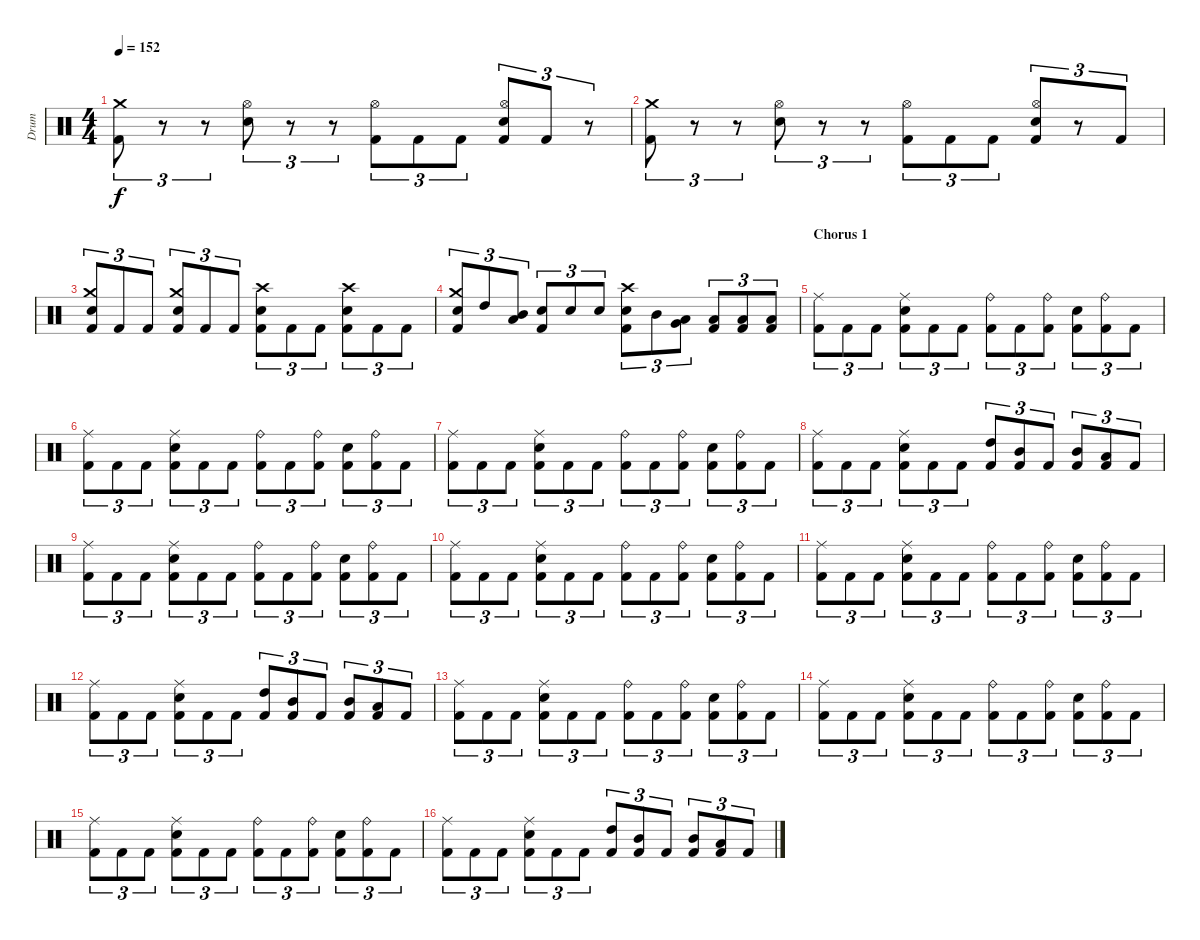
\track ("Drum" "Drum") {instrument percussion}
\staff {score}
\articulation defaults
\ts (4 4)
\tempo 152
\clef neutral
\ks c
("Kick (hit) 2" "Crash medium (hit)").8{tu (3 2) dy f} r.8{tu (3 2)} r.8{tu (3 2)} ("Hi-Hat (open)" "Electric Snare (hit)").8{tu (3 2)} r.8{tu (3 2)} r.8{tu (3 2)} ("Hi-Hat (open)" "Kick (hit) 2").8{tu (3 2)} "Kick (hit) 2".8{tu (3 2)} "Kick (hit) 2".8{tu (3 2)} ("Kick (hit) 2" "Hi-Hat (open)" "Electric Snare (hit)").8{tu (3 2)} "Kick (hit) 2".8{tu (3 2)} r.8{tu (3 2)} |
("Crash medium (hit)" "Kick (hit) 2").8{tu (3 2)} r.8{tu (3 2)} r.8{tu (3 2)} ("Hi-Hat (open)" "Electric Snare (hit)").8{tu (3 2)} r.8{tu (3 2)} r.8{tu (3 2)} ("Kick (hit) 2" "Hi-Hat (open)").8{tu (3 2)} "Kick (hit) 2".8{tu (3 2)} "Kick (hit) 2".8{tu (3 2)} ("Electric Snare (hit)" "Kick (hit) 2" "Hi-Hat (open)").8{tu (3 2)} r.8{tu (3 2)} "Kick (hit) 2".8{tu (3 2)} |
("Kick (hit) 2" "Crash medium (hit)" "Electric Snare (hit)").8{tu (3 2)} "Kick (hit) 2".8{tu (3 2)} "Kick (hit) 2".8{tu (3 2)} ("Electric Snare (hit)" "Crash medium (hit)" "Kick (hit) 2").8{tu (3 2)} "Kick (hit) 2".8{tu (3 2)} "Kick (hit) 2".8{tu (3 2)} ("Kick (hit) 2" "Crash high (hit)" "Electric Snare (hit)").8{tu (3 2)} "Kick (hit) 2".8{tu (3 2)} "Kick (hit) 2".8{tu (3 2)} ("Crash high (hit)" "Electric Snare (hit)" "Kick (hit) 2").8{tu (3 2)} "Kick (hit) 2".8{tu (3 2)} "Kick (hit) 2".8{tu (3 2)} |
("Crash medium (hit)" "Electric Snare (hit)" "Kick (hit) 2").8{tu (3 2)} "High Tom (hit)".8{tu (3 2)} ("Mid Tom (hit)" "Low Tom (hit)").8{tu (3 2)} ("Kick (hit) 2" "Electric Snare (hit)").8{tu (3 2)} "Electric Snare (hit)".8{tu (3 2)} "Electric Snare (hit)".8{tu (3 2)} ("Crash high (hit)" "Electric Snare (hit)" "Kick (hit) 2").8{tu (3 2)} "Mid Tom (hit)".8{tu (3 2)} ("Low Tom (hit)" "Very Low Tom (hit)").8{tu (3 2)} ("Low Tom (hit)" "Kick (hit) 2").8{tu (3 2)} ("Low Tom (hit)" "Kick (hit) 2").8{tu (3 2)} ("Kick (hit) 2" "Low Tom (hit)").8{tu (3 2)} |
\section ("" "Chorus 1")
("Kick (hit) 2" "Ride (middle)").8{tu (3 2)} "Kick (hit) 2".8{tu (3 2)} "Kick (hit) 2".8{tu (3 2)} ("Ride (middle)" "Kick (hit) 2" "Electric Snare (hit)").8{tu (3 2)} "Kick (hit) 2".8{tu (3 2)} "Kick (hit) 2".8{tu (3 2)} ("Kick (hit) 2" "Ride (bell)").8{tu (3 2)} "Kick (hit) 2".8{tu (3 2)} ("Kick (hit) 2" "Ride (bell)").8{tu (3 2)} ("Electric Snare (hit)" "Kick (hit) 2").8{tu (3 2)} ("Kick (hit) 2" "Ride (bell)").8{tu (3 2)} "Kick (hit) 2".8{tu (3 2)} |
("Ride (middle)" "Kick (hit) 2").8{tu (3 2)} "Kick (hit) 2".8{tu (3 2)} "Kick (hit) 2".8{tu (3 2)} ("Electric Snare (hit)" "Ride (middle)" "Kick (hit) 2").8{tu (3 2)} "Kick (hit) 2".8{tu (3 2)} "Kick (hit) 2".8{tu (3 2)} ("Kick (hit) 2" "Ride (bell)").8{tu (3 2)} "Kick (hit) 2".8{tu (3 2)} ("Kick (hit) 2" "Ride (bell)").8{tu (3 2)} ("Electric Snare (hit)" "Kick (hit) 2").8{tu (3 2)} ("Kick (hit) 2" "Ride (bell)").8{tu (3 2)} "Kick (hit) 2".8{tu (3 2)} |
("Ride (middle)" "Kick (hit) 2").8{tu (3 2)} "Kick (hit) 2".8{tu (3 2)} "Kick (hit) 2".8{tu (3 2)} ("Ride (middle)" "Electric Snare (hit)" "Kick (hit) 2").8{tu (3 2)} "Kick (hit) 2".8{tu (3 2)} "Kick (hit) 2".8{tu (3 2)} ("Kick (hit) 2" "Ride (bell)").8{tu (3 2)} "Kick (hit) 2".8{tu (3 2)} ("Kick (hit) 2" "Ride (bell)").8{tu (3 2)} ("Electric Snare (hit)" "Kick (hit) 2").8{tu (3 2)} ("Kick (hit) 2" "Ride (bell)").8{tu (3 2)} "Kick (hit) 2".8{tu (3 2)} |
("Kick (hit) 2" "Ride (middle)").8{tu (3 2)} "Kick (hit) 2".8{tu (3 2)} "Kick (hit) 2".8{tu (3 2)} ("Electric Snare (hit)" "Ride (middle)" "Kick (hit) 2").8{tu (3 2)} "Kick (hit) 2".8{tu (3 2)} "Kick (hit) 2".8{tu (3 2)} ("Kick (hit) 2" "High Tom (hit)").8{tu (3 2)} ("Kick (hit) 2" "Mid Tom (hit)").8{tu (3 2)} "Kick (hit) 2".8{tu (3 2)} ("Mid Tom (hit)" "Kick (hit) 2").8{tu (3 2)} ("Kick (hit) 2" "Low Tom (hit)").8{tu (3 2)} "Kick (hit) 2".8{tu (3 2)} |
("Ride (middle)" "Kick (hit) 2").8{tu (3 2)} "Kick (hit) 2".8{tu (3 2)} "Kick (hit) 2".8{tu (3 2)} ("Ride (middle)" "Electric Snare (hit)" "Kick (hit) 2").8{tu (3 2)} "Kick (hit) 2".8{tu (3 2)} "Kick (hit) 2".8{tu (3 2)} ("Ride (bell)" "Kick (hit) 2").8{tu (3 2)} "Kick (hit) 2".8{tu (3 2)} ("Ride (bell)" "Kick (hit) 2").8{tu (3 2)} ("Electric Snare (hit)" "Kick (hit) 2").8{tu (3 2)} ("Ride (bell)" "Kick (hit) 2").8{tu (3 2)} "Kick (hit) 2".8{tu (3 2)} |
("Kick (hit) 2" "Ride (middle)").8{tu (3 2)} "Kick (hit) 2".8{tu (3 2)} "Kick (hit) 2".8{tu (3 2)} ("Ride (middle)" "Electric Snare (hit)" "Kick (hit) 2").8{tu (3 2)} "Kick (hit) 2".8{tu (3 2)} "Kick (hit) 2".8{tu (3 2)} ("Kick (hit) 2" "Ride (bell)").8{tu (3 2)} "Kick (hit) 2".8{tu (3 2)} ("Kick (hit) 2" "Ride (bell)").8{tu (3 2)} ("Electric Snare (hit)" "Kick (hit) 2").8{tu (3 2)} ("Kick (hit) 2" "Ride (bell)").8{tu (3 2)} "Kick (hit) 2".8{tu (3 2)} |
("Kick (hit) 2" "Ride (middle)").8{tu (3 2)} "Kick (hit) 2".8{tu (3 2)} "Kick (hit) 2".8{tu (3 2)} ("Ride (middle)" "Electric Snare (hit)" "Kick (hit) 2").8{tu (3 2)} "Kick (hit) 2".8{tu (3 2)} "Kick (hit) 2".8{tu (3 2)} ("Kick (hit) 2" "Ride (bell)").8{tu (3 2)} "Kick (hit) 2".8{tu (3 2)} ("Kick (hit) 2" "Ride (bell)").8{tu (3 2)} ("Electric Snare (hit)" "Kick (hit) 2").8{tu (3 2)} ("Kick (hit) 2" "Ride (bell)").8{tu (3 2)} "Kick (hit) 2".8{tu (3 2)} |
("Kick (hit) 2" "Ride (middle)").8{tu (3 2)} "Kick (hit) 2".8{tu (3 2)} "Kick (hit) 2".8{tu (3 2)} ("Kick (hit) 2" "Ride (middle)" "Electric Snare (hit)").8{tu (3 2)} "Kick (hit) 2".8{tu (3 2)} "Kick (hit) 2".8{tu (3 2)} ("Kick (hit) 2" "High Tom (hit)").8{tu (3 2)} ("Mid Tom (hit)" "Kick (hit) 2").8{tu (3 2)} "Kick (hit) 2".8{tu (3 2)} ("Kick (hit) 2" "Mid Tom (hit)").8{tu (3 2)} ("Low Tom (hit)" "Kick (hit) 2").8{tu (3 2)} "Kick (hit) 2".8{tu (3 2)} |
\section ("" "")
("Ride (middle)" "Kick (hit) 2").8{tu (3 2)} "Kick (hit) 2".8{tu (3 2)} "Kick (hit) 2".8{tu (3 2)} ("Ride (middle)" "Electric Snare (hit)" "Kick (hit) 2").8{tu (3 2)} "Kick (hit) 2".8{tu (3 2)} "Kick (hit) 2".8{tu (3 2)} ("Ride (bell)" "Kick (hit) 2").8{tu (3 2)} "Kick (hit) 2".8{tu (3 2)} ("Ride (bell)" "Kick (hit) 2").8{tu (3 2)} ("Electric Snare (hit)" "Kick (hit) 2").8{tu (3 2)} ("Ride (bell)" "Kick (hit) 2").8{tu (3 2)} "Kick (hit) 2".8{tu (3 2)} |
("Ride (middle)" "Kick (hit) 2").8{tu (3 2)} "Kick (hit) 2".8{tu (3 2)} "Kick (hit) 2".8{tu (3 2)} ("Ride (middle)" "Electric Snare (hit)" "Kick (hit) 2").8{tu (3 2)} "Kick (hit) 2".8{tu (3 2)} "Kick (hit) 2".8{tu (3 2)} ("Ride (bell)" "Kick (hit) 2").8{tu (3 2)} "Kick (hit) 2".8{tu (3 2)} ("Ride (bell)" "Kick (hit) 2").8{tu (3 2)} ("Electric Snare (hit)" "Kick (hit) 2").8{tu (3 2)} ("Ride (bell)" "Kick (hit) 2").8{tu (3 2)} "Kick (hit) 2".8{tu (3 2)} |
("Kick (hit) 2" "Ride (middle)").8{tu (3 2)} "Kick (hit) 2".8{tu (3 2)} "Kick (hit) 2".8{tu (3 2)} ("Electric Snare (hit)" "Kick (hit) 2" "Ride (middle)").8{tu (3 2)} "Kick (hit) 2".8{tu (3 2)} "Kick (hit) 2".8{tu (3 2)} ("Ride (bell)" "Kick (hit) 2").8{tu (3 2)} "Kick (hit) 2".8{tu (3 2)} ("Ride (bell)" "Kick (hit) 2").8{tu (3 2)} ("Kick (hit) 2" "Electric Snare (hit)").8{tu (3 2)} ("Ride (bell)" "Kick (hit) 2").8{tu (3 2)} "Kick (hit) 2".8{tu (3 2)} |
("Ride (middle)" "Kick (hit) 2").8{tu (3 2)} "Kick (hit) 2".8{tu (3 2)} "Kick (hit) 2".8{tu (3 2)} ("Electric Snare (hit)" "Ride (middle)" "Kick (hit) 2").8{tu (3 2)} "Kick (hit) 2".8{tu (3 2)} "Kick (hit) 2".8{tu (3 2)} ("Kick (hit) 2" "High Tom (hit)").8{tu (3 2)} ("Kick (hit) 2" "Mid Tom (hit)").8{tu (3 2)} "Kick (hit) 2".8{tu (3 2)} ("Mid Tom (hit)" "Kick (hit) 2").8{tu (3 2)} ("Kick (hit) 2" "Low Tom (hit)").8{tu (3 2)} "Kick (hit) 2".8{tu (3 2)}
